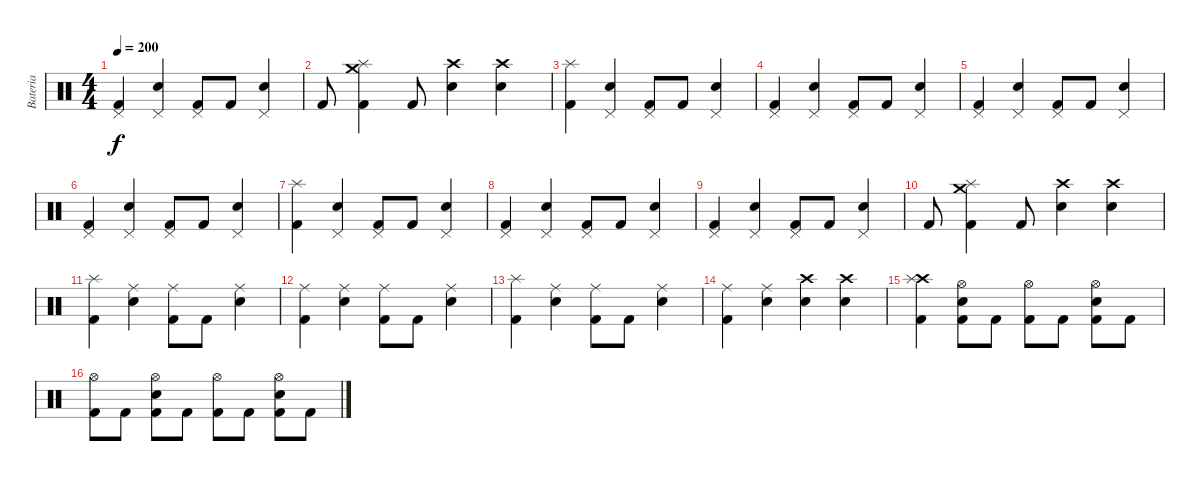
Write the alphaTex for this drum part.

\track ("Bateria " "Bateria ") {instrument percussion}
\staff {score}
\articulation defaults
\ts (4 4)
\tempo 200
\clef neutral
\ks c
("Kick (hit) 2" "Pedal Hi-Hat (hit)").4{dy f} ("Electric Snare (hit)" "Pedal Hi-Hat (hit)").4 ("Kick (hit) 2" "Pedal Hi-Hat (hit)").8 "Kick (hit) 2".8 ("Electric Snare (hit)" "Pedal Hi-Hat (hit)").4 |
"Kick (hit) 2".8 ("Kick (hit) 2" "Crash medium (hit)" "Splash (hit)").4 "Kick (hit) 2".8 ("Electric Snare (hit)" "Crash high (hit)").4 ("Electric Snare (hit)" "Crash high (hit)").4 |
("Kick (hit) 2" "Splash (hit)").4 ("Electric Snare (hit)" "Pedal Hi-Hat (hit)").4 ("Kick (hit) 2" "Pedal Hi-Hat (hit)").8 "Kick (hit) 2".8 ("Electric Snare (hit)" "Pedal Hi-Hat (hit)").4 |
("Kick (hit) 2" "Pedal Hi-Hat (hit)").4 ("Electric Snare (hit)" "Pedal Hi-Hat (hit)").4 ("Kick (hit) 2" "Pedal Hi-Hat (hit)").8 "Kick (hit) 2".8 ("Electric Snare (hit)" "Pedal Hi-Hat (hit)").4 |
("Kick (hit) 2" "Pedal Hi-Hat (hit)").4 ("Electric Snare (hit)" "Pedal Hi-Hat (hit)").4 ("Kick (hit) 2" "Pedal Hi-Hat (hit)").8 "Kick (hit) 2".8 ("Electric Snare (hit)" "Pedal Hi-Hat (hit)").4 |
("Kick (hit) 2" "Pedal Hi-Hat (hit)").4 ("Electric Snare (hit)" "Pedal Hi-Hat (hit)").4 ("Kick (hit) 2" "Pedal Hi-Hat (hit)").8 "Kick (hit) 2".8 ("Electric Snare (hit)" "Pedal Hi-Hat (hit)").4 |
("Kick (hit) 2" "Splash (hit)").4 ("Electric Snare (hit)" "Pedal Hi-Hat (hit)").4 ("Kick (hit) 2" "Pedal Hi-Hat (hit)").8 "Kick (hit) 2".8 ("Electric Snare (hit)" "Pedal Hi-Hat (hit)").4 |
("Kick (hit) 2" "Pedal Hi-Hat (hit)").4 ("Electric Snare (hit)" "Pedal Hi-Hat (hit)").4 ("Kick (hit) 2" "Pedal Hi-Hat (hit)").8 "Kick (hit) 2".8 ("Electric Snare (hit)" "Pedal Hi-Hat (hit)").4 |
("Kick (hit) 2" "Pedal Hi-Hat (hit)").4 ("Electric Snare (hit)" "Pedal Hi-Hat (hit)").4 ("Kick (hit) 2" "Pedal Hi-Hat (hit)").8 "Kick (hit) 2".8 ("Electric Snare (hit)" "Pedal Hi-Hat (hit)").4 |
"Kick (hit) 2".8 ("Kick (hit) 2" "Crash medium (hit)" "Splash (hit)").4 "Kick (hit) 2".8 ("Electric Snare (hit)" "Crash high (hit)").4 ("Electric Snare (hit)" "Crash high (hit)").4 |
("Kick (hit) 2" "Splash (hit)").4 ("Electric Snare (hit)" "Ride (middle)").4 ("Kick (hit) 2" "Ride (middle)").8 "Kick (hit) 2".8 ("Electric Snare (hit)" "Ride (middle)").4 |
("Kick (hit) 2" "Ride (middle)").4 ("Electric Snare (hit)" "Ride (middle)").4 ("Kick (hit) 2" "Ride (middle)").8 "Kick (hit) 2".8 ("Electric Snare (hit)" "Ride (middle)").4 |
("Kick (hit) 2" "Splash (hit)").4 ("Electric Snare (hit)" "Ride (middle)").4 ("Kick (hit) 2" "Ride (middle)").8 "Kick (hit) 2".8 ("Electric Snare (hit)" "Ride (middle)").4 |
("Kick (hit) 2" "Ride (middle)").4 ("Electric Snare (hit)" "Ride (middle)").4 ("Electric Snare (hit)" "Crash high (hit)").4 ("Electric Snare (hit)" "Crash high (hit)").4 |
("Kick (hit) 2" "Crash high (hit)" "Splash (hit)").4 ("Kick (hit) 2" "Electric Snare (hit)" "Hi-Hat (open)").8 "Kick (hit) 2".8 ("Kick (hit) 2" "Hi-Hat (open)").8 "Kick (hit) 2".8 ("Kick (hit) 2" "Electric Snare (hit)" "Hi-Hat (open)").8 "Kick (hit) 2".8 |
("Kick (hit) 2" "Hi-Hat (open)").8 "Kick (hit) 2".8 ("Kick (hit) 2" "Electric Snare (hit)" "Hi-Hat (open)").8 "Kick (hit) 2".8 ("Kick (hit) 2" "Hi-Hat (open)").8 "Kick (hit) 2".8 ("Kick (hit) 2" "Electric Snare (hit)" "Hi-Hat (open)").8 "Kick (hit) 2".8
